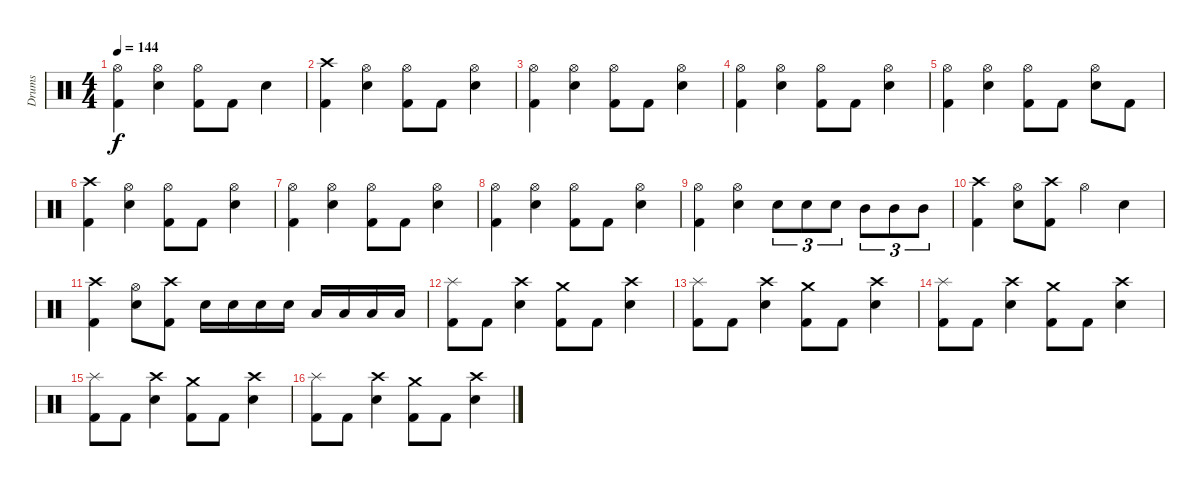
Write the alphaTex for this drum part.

\track ("Drums" "Drums") {instrument percussion}
\staff {score}
\articulation defaults
\ts (4 4)
\tempo 144
\clef neutral
\ks c
("Kick (hit) 2" "Hi-Hat (open)").4{dy f} ("Snare (hit) 2" "Hi-Hat (open)").4 ("Kick (hit) 2" "Hi-Hat (open)").8 "Kick (hit) 2".8 "Snare (hit) 2".4 |
("Kick (hit) 2" "Crash high (hit)").4 ("Snare (hit) 2" "Hi-Hat (open)").4 ("Kick (hit) 2" "Hi-Hat (open)").8 "Kick (hit) 2".8 ("Snare (hit) 2" "Hi-Hat (open)").4 |
("Kick (hit) 2" "Hi-Hat (open)").4 ("Snare (hit) 2" "Hi-Hat (open)").4 ("Kick (hit) 2" "Hi-Hat (open)").8 "Kick (hit) 2".8 ("Snare (hit) 2" "Hi-Hat (open)").4 |
("Kick (hit) 2" "Hi-Hat (open)").4 ("Snare (hit) 2" "Hi-Hat (open)").4 ("Kick (hit) 2" "Hi-Hat (open)").8 "Kick (hit) 2".8 ("Snare (hit) 2" "Hi-Hat (open)").4 |
("Kick (hit) 2" "Hi-Hat (open)").4 ("Snare (hit) 2" "Hi-Hat (open)").4 ("Kick (hit) 2" "Hi-Hat (open)").8 "Kick (hit) 2".8 ("Snare (hit) 2" "Hi-Hat (open)").8 "Kick (hit) 2".8 |
("Kick (hit) 2" "Crash high (hit)").4 ("Snare (hit) 2" "Hi-Hat (open)").4 ("Kick (hit) 2" "Hi-Hat (open)").8 "Kick (hit) 2".8 ("Snare (hit) 2" "Hi-Hat (open)").4 |
("Kick (hit) 2" "Hi-Hat (open)").4 ("Snare (hit) 2" "Hi-Hat (open)").4 ("Kick (hit) 2" "Hi-Hat (open)").8 "Kick (hit) 2".8 ("Snare (hit) 2" "Hi-Hat (open)").4 |
("Kick (hit) 2" "Hi-Hat (open)").4 ("Snare (hit) 2" "Hi-Hat (open)").4 ("Kick (hit) 2" "Hi-Hat (open)").8 "Kick (hit) 2".8 ("Snare (hit) 2" "Hi-Hat (open)").4 |
("Kick (hit) 2" "Hi-Hat (open)").4 ("Snare (hit) 2" "Hi-Hat (open)").4 "Snare (hit) 2".8{tu (3 2)} "Snare (hit) 2".8{tu (3 2)} "Snare (hit) 2".8{tu (3 2)} "Mid Tom (hit)".8{tu (3 2)} "Mid Tom (hit)".8{tu (3 2)} "Mid Tom (hit)".8{tu (3 2)} |
("Kick (hit) 2" "Crash high (hit)").4 ("Snare (hit) 2" "Hi-Hat (open)").8 ("Kick (hit) 2" "Crash high (hit)").8 "Hi-Hat (open)".4 "Snare (hit) 2".4 |
("Kick (hit) 2" "Crash high (hit)").4 ("Snare (hit) 2" "Hi-Hat (open)").8 ("Kick (hit) 2" "Crash high (hit)").8 "Snare (hit) 2".16 "Snare (hit) 2".16 "Snare (hit) 2".16 "Snare (hit) 2".16 "Low Tom (hit)".16 "Low Tom (hit)".16 "Low Tom (hit)".16 "Low Tom (hit)".16 |
("Kick (hit) 2" "Splash (hit)").8 "Kick (hit) 2".8 ("Snare (hit) 2" "Crash high (hit)").4 ("Kick (hit) 2" "Crash medium (hit)").8 "Kick (hit) 2".8 ("Snare (hit) 2" "Crash high (hit)").4 |
("Kick (hit) 2" "Splash (hit)").8 "Kick (hit) 2".8 ("Snare (hit) 2" "Crash high (hit)").4 ("Kick (hit) 2" "Crash medium (hit)").8 "Kick (hit) 2".8 ("Snare (hit) 2" "Crash high (hit)").4 |
("Kick (hit) 2" "Splash (hit)").8 "Kick (hit) 2".8 ("Snare (hit) 2" "Crash high (hit)").4 ("Kick (hit) 2" "Crash medium (hit)").8 "Kick (hit) 2".8 ("Snare (hit) 2" "Crash high (hit)").4 |
("Kick (hit) 2" "Splash (hit)").8 "Kick (hit) 2".8 ("Snare (hit) 2" "Crash high (hit)").4 ("Kick (hit) 2" "Crash medium (hit)").8 "Kick (hit) 2".8 ("Snare (hit) 2" "Crash high (hit)").4 |
("Kick (hit) 2" "Splash (hit)").8 "Kick (hit) 2".8 ("Snare (hit) 2" "Crash high (hit)").4 ("Kick (hit) 2" "Crash medium (hit)").8 "Kick (hit) 2".8 ("Snare (hit) 2" "Crash high (hit)").4
